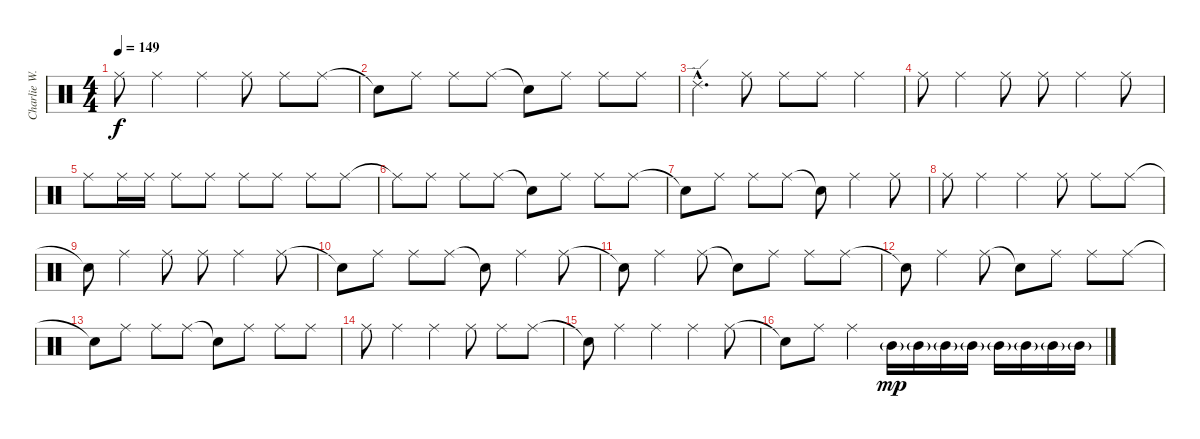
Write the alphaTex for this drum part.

\track ("Charlie W. drums" "Charlie W.") {instrument percussion}
\staff {score}
\articulation defaults
\ts (4 4)
\tempo 149
\clef neutral
\ks c "Ride (middle)".8{dy f} "Ride (middle)".4 "Ride (middle)".4 "Ride (middle)".8 "Ride (middle)".8 "Ride (middle)".8
|
"Snare (hit)"{t}.8 "Ride (middle)".8 "Ride (middle)".8 "Ride (middle)".8 "Snare (hit)"{t}.8 "Ride (middle)".8 "Ride (middle)".8 "Ride (middle)".8 |
"Ride (edge) 2"{hac}.4{d} "Ride (middle)".8 "Ride (middle)".8 "Ride (middle)".8 "Ride (middle)".4 |
"Ride (middle)".8 "Ride (middle)".4 "Ride (middle)".8 "Ride (middle)".8 "Ride (middle)".4 "Ride (middle)".8 |
"Ride (middle)".8 "Ride (middle)".16 "Ride (middle)".16 "Ride (middle)".8 "Ride (middle)".8 "Ride (middle)".8 "Ride (middle)".8 "Ride (middle)".8 "Ride (middle)".8 |
"Ride (middle)"{t}.8 "Ride (middle)".8 "Ride (middle)".8 "Ride (middle)".8 "Snare (hit)"{t}.8 "Ride (middle)".8 "Ride (middle)".8 "Ride (middle)".8 |
"Snare (hit)"{t}.8 "Ride (middle)".8 "Ride (middle)".8 "Ride (middle)".8 "Snare (hit)"{t}.8 "Ride (middle)".4 "Ride (middle)".8 |
"Ride (middle)".8 "Ride (middle)".4 "Ride (middle)".4 "Ride (middle)".8 "Ride (middle)".8 "Ride (middle)".8 |
"Snare (hit)"{t}.8 "Ride (middle)".4 "Ride (middle)".8 "Ride (middle)".8 "Ride (middle)".4 "Ride (middle)".8 |
"Snare (hit)"{t}.8 "Ride (middle)".8 "Ride (middle)".8 "Ride (middle)".8 "Snare (hit)"{t}.8 "Ride (middle)".4 "Ride (middle)".8 |
"Snare (hit)"{t}.8 "Ride (middle)".4 "Ride (middle)".8 "Snare (hit)"{t}.8 "Ride (middle)".8 "Ride (middle)".8 "Ride (middle)".8 |
"Snare (hit)"{t}.8 "Ride (middle)".4 "Ride (middle)".8 "Snare (hit)"{t}.8 "Ride (middle)".8 "Ride (middle)".8 "Ride (middle)".8 |
"Snare (hit)"{t}.8 "Ride (middle)".8 "Ride (middle)".8 "Ride (middle)".8 "Snare (hit)"{t}.8 "Ride (middle)".8 "Ride (middle)".8 "Ride (middle)".8 |
"Ride (middle)".8 "Ride (middle)".4 "Ride (middle)".4 "Ride (middle)".8 "Ride (middle)".8 "Ride (middle)".8 |
"Snare (hit)"{t}.8 "Ride (middle)".4 "Ride (middle)".4 "Ride (middle)".4 "Ride (middle)".8 |
"Snare (hit)"{t}.8 "Ride (middle)".8 "Ride (middle)".4 "Mid Tom (hit)"{g}.16{dy mp} "Mid Tom (hit)"{g}.16 "Mid Tom (hit)"{g}.16 "Mid Tom (hit)"{g}.16 "Mid Tom (hit)"{g}.16 "Mid Tom (hit)"{g}.16 "Mid Tom (hit)"{g}.16 "Mid Tom (hit)"{g}.16
